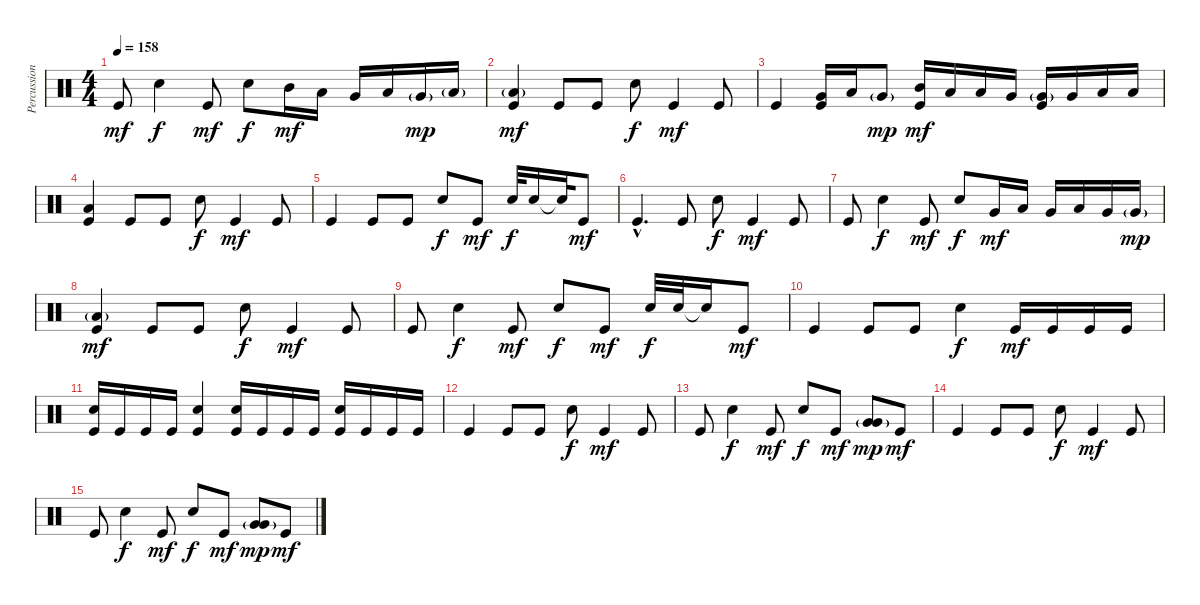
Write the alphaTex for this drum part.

\track ("Percussion" "Percussion") {instrument percussion}
\staff {score}
\articulation defaults
\ts (4 4)
\tempo 158
\clef neutral
\ks c "Kick (hit)".8{dy mf} "Electric Snare (hit)".4{dy f} "Kick (hit)".8{dy mf} "Electric Snare (hit)".8{dy f} "Mid Tom (hit)".16{dy mf} "Low Tom (hit)".16 "Very Low Tom (hit)".16 "Low Tom (hit)".16 "Very Low Tom (hit)"{g}.16{dy mp} "Low Floor Tom (hit)"{g}.16
|
("Low Floor Tom (hit)"{g} "Kick (hit)").4{dy mf} "Kick (hit)".8 "Kick (hit)".8 "Electric Snare (hit)".8{dy f} "Kick (hit)".4{dy mf} "Kick (hit)".8 |
"Kick (hit)".4 ("Very Low Tom (hit)" "Kick (hit)").16 "Low Tom (hit)".16 "Very Low Tom (hit)"{g}.8{dy mp} ("Mid Tom (hit)" "Kick (hit)").16{dy mf} "Low Tom (hit)".16 "Low Tom (hit)".16 "Very Low Tom (hit)".16 ("Very Low Tom (hit)"{g} "Kick (hit)").16 "Very Low Tom (hit)".16 "Low Floor Tom (hit)".16 "Low Floor Tom (hit)".16 |
("Low Floor Tom (hit)" "Kick (hit)").4 "Kick (hit)".8 "Kick (hit)".8 "Electric Snare (hit)".8{dy f} "Kick (hit)".4{dy mf} "Kick (hit)".8 |
"Kick (hit)".4 "Kick (hit)".8 "Kick (hit)".8 "Electric Snare (hit)".8{dy f} "Kick (hit)".8{dy mf} "Electric Snare (hit)".32{dy f} "Electric Snare (hit)".16 "Snare (hit)"{t}.32 "Kick (hit)".8{dy mf} |
"Kick (hit)"{hac}.4{d} "Kick (hit)".8 "Electric Snare (hit)".8{dy f} "Kick (hit)".4{dy mf} "Kick (hit)".8 |
"Kick (hit)".8 "Electric Snare (hit)".4{dy f} "Kick (hit)".8{dy mf} "Electric Snare (hit)".8{dy f} "Very Low Tom (hit)".16{dy mf} "Low Tom (hit)".16 "Very Low Tom (hit)".16 "Low Tom (hit)".16 "Very Low Tom (hit)".16 "Very Low Tom (hit)"{g}.16{dy mp} |
("Low Floor Tom (hit)"{g} "Kick (hit)").4{dy mf} "Kick (hit)".8 "Kick (hit)".8 "Electric Snare (hit)".8{dy f} "Kick (hit)".4{dy mf} "Kick (hit)".8 |
"Kick (hit)".8 "Electric Snare (hit)".4{dy f} "Kick (hit)".8{dy mf} "Electric Snare (hit)".8{dy f} "Kick (hit)".8{dy mf} "Electric Snare (hit)".32{dy f} "Electric Snare (hit)".32 "Snare (hit)"{t}.16 "Kick (hit)".8{dy mf} |
"Kick (hit)".4 "Kick (hit)".8 "Kick (hit)".8 "Electric Snare (hit)".4{dy f} "Kick (hit)".16{dy mf} "Kick (hit)".16 "Kick (hit)".16 "Kick (hit)".16 |
("Electric Snare (hit)" "Kick (hit)").16 "Kick (hit)".16 "Kick (hit)".16 "Kick (hit)".16 ("Electric Snare (hit)" "Kick (hit)").4 ("Electric Snare (hit)" "Kick (hit)").16 "Kick (hit)".16 "Kick (hit)".16 "Kick (hit)".16 ("Electric Snare (hit)" "Kick (hit)").16 "Kick (hit)".16 "Kick (hit)".16 "Kick (hit)".16 |
"Kick (hit)".4 "Kick (hit)".8 "Kick (hit)".8 "Electric Snare (hit)".8{dy f} "Kick (hit)".4{dy mf} "Kick (hit)".8 |
"Kick (hit)".8 "Electric Snare (hit)".4{dy f} "Kick (hit)".8{dy mf} "Electric Snare (hit)".8{dy f} "Kick (hit)".8{dy mf} ("Very Low Tom (hit)"{g} "Very Low Tom (hit)").8{dy mp} "Kick (hit)".8{dy mf} |
"Kick (hit)".4 "Kick (hit)".8 "Kick (hit)".8 "Electric Snare (hit)".8{dy f} "Kick (hit)".4{dy mf} "Kick (hit)".8 |
"Kick (hit)".8 "Electric Snare (hit)".4{dy f} "Kick (hit)".8{dy mf} "Electric Snare (hit)".8{dy f} "Kick (hit)".8{dy mf} ("Very Low Tom (hit)"{g} "Very Low Tom (hit)").8{dy mp} "Kick (hit)".8{dy mf}
